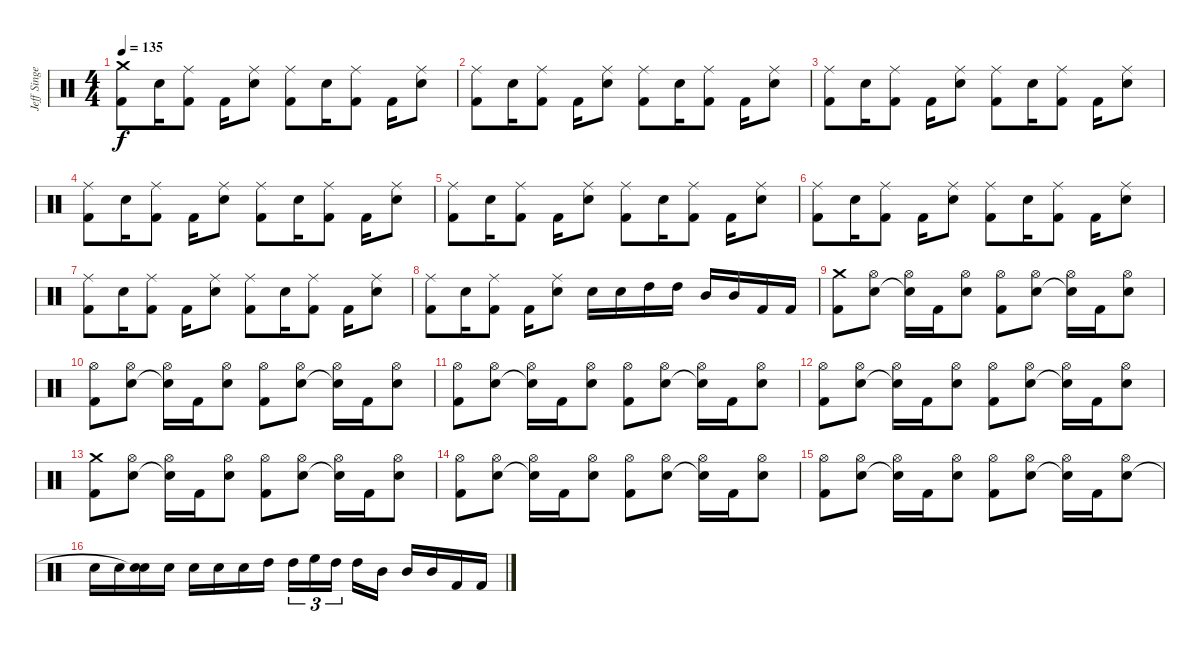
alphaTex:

\track ("Jeff Singer" "Jeff Singe") {instrument percussion}
\staff {score}
\articulation defaults
\ts (4 4)
\tempo 135
\clef neutral
\ks c
("Crash medium (hit)" "Kick (hit) 2").8{dy f} "Snare (hit) 2".16 ("Ride (middle)" "Kick (hit) 2").8 "Kick (hit) 2".16 ("Ride (middle)" "Snare (hit) 2").8 ("Ride (middle)" "Kick (hit) 2").8 "Snare (hit) 2".16 ("Ride (middle)" "Kick (hit) 2").8 "Kick (hit) 2".16 ("Ride (middle)" "Snare (hit) 2").8 |
("Ride (middle)" "Kick (hit) 2").8 "Snare (hit) 2".16 ("Ride (middle)" "Kick (hit) 2").8 "Kick (hit) 2".16 ("Ride (middle)" "Snare (hit) 2").8 ("Ride (middle)" "Kick (hit) 2").8 "Snare (hit) 2".16 ("Ride (middle)" "Kick (hit) 2").8 "Kick (hit) 2".16 ("Ride (middle)" "Snare (hit) 2").8 |
("Ride (middle)" "Kick (hit) 2").8 "Snare (hit) 2".16 ("Ride (middle)" "Kick (hit) 2").8 "Kick (hit) 2".16 ("Ride (middle)" "Snare (hit) 2").8 ("Ride (middle)" "Kick (hit) 2").8 "Snare (hit) 2".16 ("Ride (middle)" "Kick (hit) 2").8 "Kick (hit) 2".16 ("Ride (middle)" "Snare (hit) 2").8 |
("Ride (middle)" "Kick (hit) 2").8 "Snare (hit) 2".16 ("Ride (middle)" "Kick (hit) 2").8 "Kick (hit) 2".16 ("Ride (middle)" "Snare (hit) 2").8 ("Ride (middle)" "Kick (hit) 2").8 "Snare (hit) 2".16 ("Ride (middle)" "Kick (hit) 2").8 "Kick (hit) 2".16 ("Ride (middle)" "Snare (hit) 2").8 |
("Ride (middle)" "Kick (hit) 2").8 "Snare (hit) 2".16 ("Ride (middle)" "Kick (hit) 2").8 "Kick (hit) 2".16 ("Ride (middle)" "Snare (hit) 2").8 ("Ride (middle)" "Kick (hit) 2").8 "Snare (hit) 2".16 ("Ride (middle)" "Kick (hit) 2").8 "Kick (hit) 2".16 ("Ride (middle)" "Snare (hit) 2").8 |
("Ride (middle)" "Kick (hit) 2").8 "Snare (hit) 2".16 ("Ride (middle)" "Kick (hit) 2").8 "Kick (hit) 2".16 ("Ride (middle)" "Snare (hit) 2").8 ("Ride (middle)" "Kick (hit) 2").8 "Snare (hit) 2".16 ("Ride (middle)" "Kick (hit) 2").8 "Kick (hit) 2".16 ("Ride (middle)" "Snare (hit) 2").8 |
("Ride (middle)" "Kick (hit) 2").8 "Snare (hit) 2".16 ("Ride (middle)" "Kick (hit) 2").8 "Kick (hit) 2".16 ("Ride (middle)" "Snare (hit) 2").8 ("Ride (middle)" "Kick (hit) 2").8 "Snare (hit) 2".16 ("Ride (middle)" "Kick (hit) 2").8 "Kick (hit) 2".16 ("Ride (middle)" "Snare (hit) 2").8 |
("Ride (middle)" "Kick (hit) 2").8 "Snare (hit) 2".16 ("Ride (middle)" "Kick (hit) 2").8 "Kick (hit) 2".16 ("Ride (middle)" "Snare (hit) 2").8 "Snare (hit) 2".16 "Snare (hit) 2".16 "High Tom (hit)".16 "High Tom (hit)".16 "Mid Tom (hit)".16 "Mid Tom (hit)".16 "Kick (hit) 2".16 "Kick (hit) 2".16 |
("Crash medium (hit)" "Kick (hit) 2").8 ("Hi-Hat (open)" "Snare (hit) 2").8 ("Hi-Hat (open)" "Snare (hit)"{t}).16 "Kick (hit) 2".16 ("Hi-Hat (open)" "Snare (hit) 2").8 ("Hi-Hat (open)" "Kick (hit) 2").8 ("Hi-Hat (open)" "Snare (hit) 2").8 ("Hi-Hat (open)" "Snare (hit)"{t}).16 "Kick (hit) 2".16 ("Hi-Hat (open)" "Snare (hit) 2").8 |
("Hi-Hat (open)" "Kick (hit) 2").8 ("Hi-Hat (open)" "Snare (hit) 2").8 ("Hi-Hat (open)" "Snare (hit)"{t}).16 "Kick (hit) 2".16 ("Hi-Hat (open)" "Snare (hit) 2").8 ("Hi-Hat (open)" "Kick (hit) 2").8 ("Hi-Hat (open)" "Snare (hit) 2").8 ("Hi-Hat (open)" "Snare (hit)"{t}).16 "Kick (hit) 2".16 ("Hi-Hat (open)" "Snare (hit) 2").8 |
("Hi-Hat (open)" "Kick (hit) 2").8 ("Hi-Hat (open)" "Snare (hit) 2").8 ("Hi-Hat (open)" "Snare (hit)"{t}).16 "Kick (hit) 2".16 ("Hi-Hat (open)" "Snare (hit) 2").8 ("Hi-Hat (open)" "Kick (hit) 2").8 ("Hi-Hat (open)" "Snare (hit) 2").8 ("Hi-Hat (open)" "Snare (hit)"{t}).16 "Kick (hit) 2".16 ("Hi-Hat (open)" "Snare (hit) 2").8 |
("Hi-Hat (open)" "Kick (hit) 2").8 ("Hi-Hat (open)" "Snare (hit) 2").8 ("Hi-Hat (open)" "Snare (hit)"{t}).16 "Kick (hit) 2".16 ("Hi-Hat (open)" "Snare (hit) 2").8 ("Hi-Hat (open)" "Kick (hit) 2").8 ("Hi-Hat (open)" "Snare (hit) 2").8 ("Hi-Hat (open)" "Snare (hit)"{t}).16 "Kick (hit) 2".16 ("Hi-Hat (open)" "Snare (hit) 2").8 |
("Crash medium (hit)" "Kick (hit) 2").8 ("Hi-Hat (open)" "Snare (hit) 2").8 ("Hi-Hat (open)" "Snare (hit)"{t}).16 "Kick (hit) 2".16 ("Hi-Hat (open)" "Snare (hit) 2").8 ("Hi-Hat (open)" "Kick (hit) 2").8 ("Hi-Hat (open)" "Snare (hit) 2").8 ("Hi-Hat (open)" "Snare (hit)"{t}).16 "Kick (hit) 2".16 ("Hi-Hat (open)" "Snare (hit) 2").8 |
("Hi-Hat (open)" "Kick (hit) 2").8 ("Hi-Hat (open)" "Snare (hit) 2").8 ("Hi-Hat (open)" "Snare (hit)"{t}).16 "Kick (hit) 2".16 ("Hi-Hat (open)" "Snare (hit) 2").8 ("Hi-Hat (open)" "Kick (hit) 2").8 ("Hi-Hat (open)" "Snare (hit) 2").8 ("Hi-Hat (open)" "Snare (hit)"{t}).16 "Kick (hit) 2".16 ("Hi-Hat (open)" "Snare (hit) 2").8 |
("Hi-Hat (open)" "Kick (hit) 2").8 ("Hi-Hat (open)" "Snare (hit) 2").8 ("Hi-Hat (open)" "Snare (hit)"{t}).16 "Kick (hit) 2".16 ("Hi-Hat (open)" "Snare (hit) 2").8 ("Hi-Hat (open)" "Kick (hit) 2").8 ("Hi-Hat (open)" "Snare (hit) 2").8 ("Hi-Hat (open)" "Snare (hit)"{t}).16 "Kick (hit) 2".16 ("Hi-Hat (open)" "Snare (hit) 2").8 |
"Snare (hit) 2".16 "Snare (hit) 2".16 ("Snare (hit) 2" "Snare (hit)"{t}).16 "Snare (hit) 2".16 "Snare (hit) 2".16 "Snare (hit) 2".16 "Snare (hit) 2".16 "High Tom (hit)".16 "High Tom (hit)".16{tu (3 2)} "High Floor Tom (hit)".16{tu (3 2)} "High Tom (hit)".16{tu (3 2)} "High Tom (hit)".16 "Mid Tom (hit)".16 "Mid Tom (hit)".16 "Mid Tom (hit)".16 "Kick (hit) 2".16 "Kick (hit) 2".16
